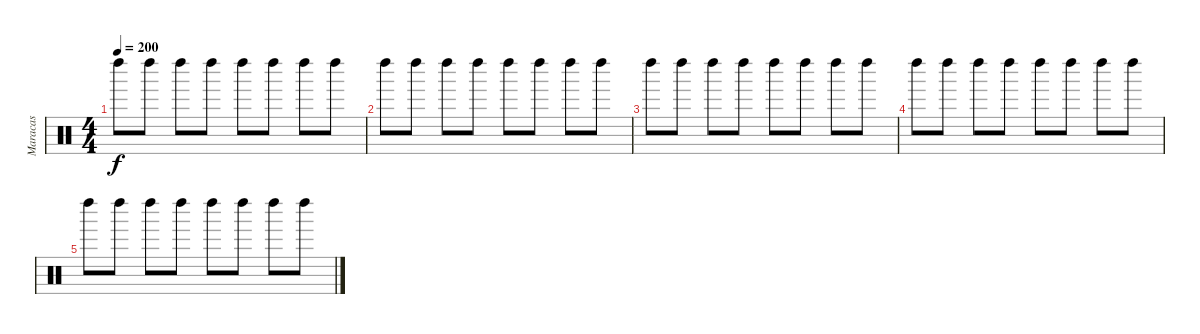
\track ("Maracas" "Maracas") {instrument percussion}
\staff {score}
\articulation defaults
\ts (4 4)
\tempo 200
\clef neutral
\ks c "Left Maraca (hit)".8{dy f} "Left Maraca (hit)".8 "Left Maraca (hit)".8 "Left Maraca (hit)".8 "Left Maraca (hit)".8 "Left Maraca (hit)".8 "Left Maraca (hit)".8 "Left Maraca (hit)".8
|
"Left Maraca (hit)".8 "Left Maraca (hit)".8 "Left Maraca (hit)".8 "Left Maraca (hit)".8 "Left Maraca (hit)".8 "Left Maraca (hit)".8 "Left Maraca (hit)".8 "Left Maraca (hit)".8 |
"Left Maraca (hit)".8 "Left Maraca (hit)".8 "Left Maraca (hit)".8 "Left Maraca (hit)".8 "Left Maraca (hit)".8 "Left Maraca (hit)".8 "Left Maraca (hit)".8 "Left Maraca (hit)".8 |
"Left Maraca (hit)".8 "Left Maraca (hit)".8 "Left Maraca (hit)".8 "Left Maraca (hit)".8 "Left Maraca (hit)".8 "Left Maraca (hit)".8 "Left Maraca (hit)".8 "Left Maraca (hit)".8 |
"Left Maraca (hit)".8 "Left Maraca (hit)".8 "Left Maraca (hit)".8 "Left Maraca (hit)".8 "Left Maraca (hit)".8 "Left Maraca (hit)".8 "Left Maraca (hit)".8 "Left Maraca (hit)".8
